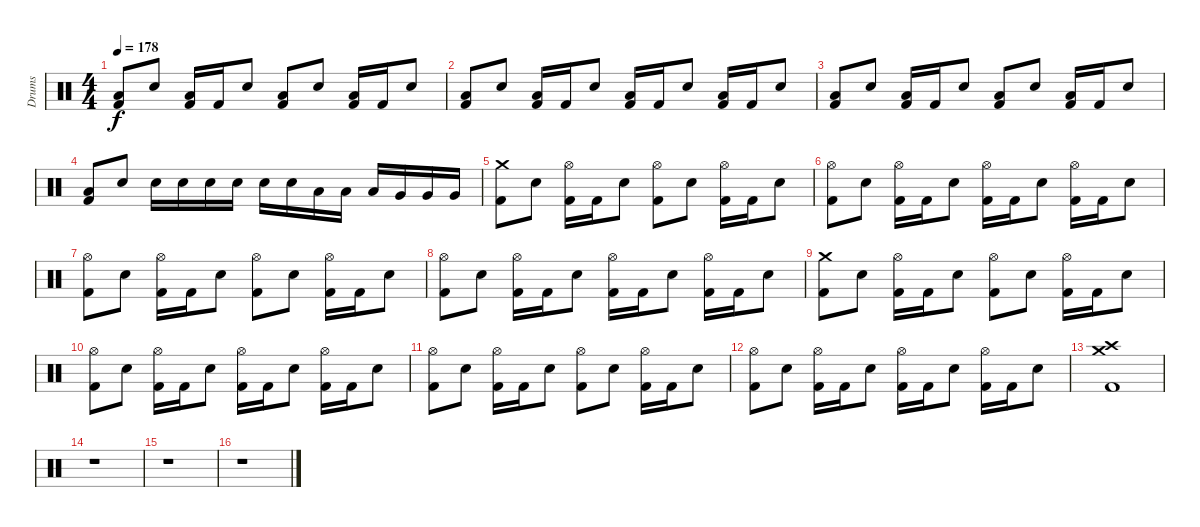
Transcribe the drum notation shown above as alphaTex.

\track ("Drums" "Drums") {instrument percussion}
\staff {score}
\articulation defaults
\ts (4 4)
\tempo 178
\clef neutral
\ks c
("Low Floor Tom (hit)" "Kick (hit) 2").8{dy f} "Electric Snare (hit)".8 ("Low Floor Tom (hit)" "Kick (hit) 2").16 "Kick (hit) 2".16 "Electric Snare (hit)".8 ("Low Floor Tom (hit)" "Kick (hit) 2").8 "Electric Snare (hit)".8 ("Low Floor Tom (hit)" "Kick (hit) 2").16 "Kick (hit) 2".16 "Electric Snare (hit)".8 |
("Low Floor Tom (hit)" "Kick (hit) 2").8 "Electric Snare (hit)".8 ("Low Floor Tom (hit)" "Kick (hit) 2").16 "Kick (hit) 2".16 "Electric Snare (hit)".8 ("Low Floor Tom (hit)" "Kick (hit) 2").16 "Kick (hit) 2".16 "Electric Snare (hit)".8 ("Low Floor Tom (hit)" "Kick (hit) 2").16 "Kick (hit) 2".16 "Electric Snare (hit)".8 |
("Low Floor Tom (hit)" "Kick (hit) 2").8 "Electric Snare (hit)".8 ("Low Floor Tom (hit)" "Kick (hit) 2").16 "Kick (hit) 2".16 "Electric Snare (hit)".8 ("Low Floor Tom (hit)" "Kick (hit) 2").8 "Electric Snare (hit)".8 ("Low Floor Tom (hit)" "Kick (hit) 2").16 "Kick (hit) 2".16 "Electric Snare (hit)".8 |
("Low Floor Tom (hit)" "Kick (hit) 2").8 "Electric Snare (hit)".8 "Electric Snare (hit)".16 "Electric Snare (hit)".16 "Electric Snare (hit)".16 "Electric Snare (hit)".16 "Electric Snare (hit)".16 "Electric Snare (hit)".16 "Low Tom (hit)".16 "Low Tom (hit)".16 "Low Tom (hit)".16 "Very Low Tom (hit)".16 "Very Low Tom (hit)".16 "Very Low Tom (hit)".16 |
("Crash medium (hit)" "Kick (hit) 2").8 "Electric Snare (hit)".8 ("Hi-Hat (open)" "Kick (hit) 2").16 "Kick (hit) 2".16 "Electric Snare (hit)".8 ("Hi-Hat (open)" "Kick (hit) 2").8 "Electric Snare (hit)".8 ("Hi-Hat (open)" "Kick (hit) 2").16 "Kick (hit) 2".16 "Electric Snare (hit)".8 |
("Hi-Hat (open)" "Kick (hit) 2").8 "Electric Snare (hit)".8 ("Hi-Hat (open)" "Kick (hit) 2").16 "Kick (hit) 2".16 "Electric Snare (hit)".8 ("Hi-Hat (open)" "Kick (hit) 2").16 "Kick (hit) 2".16 "Electric Snare (hit)".8 ("Hi-Hat (open)" "Kick (hit) 2").16 "Kick (hit) 2".16 "Electric Snare (hit)".8 |
("Hi-Hat (open)" "Kick (hit) 2").8 "Electric Snare (hit)".8 ("Hi-Hat (open)" "Kick (hit) 2").16 "Kick (hit) 2".16 "Electric Snare (hit)".8 ("Hi-Hat (open)" "Kick (hit) 2").8 "Electric Snare (hit)".8 ("Hi-Hat (open)" "Kick (hit) 2").16 "Kick (hit) 2".16 "Electric Snare (hit)".8 |
("Hi-Hat (open)" "Kick (hit) 2").8 "Electric Snare (hit)".8 ("Hi-Hat (open)" "Kick (hit) 2").16 "Kick (hit) 2".16 "Electric Snare (hit)".8 ("Hi-Hat (open)" "Kick (hit) 2").16 "Kick (hit) 2".16 "Electric Snare (hit)".8 ("Hi-Hat (open)" "Kick (hit) 2").16 "Kick (hit) 2".16 "Electric Snare (hit)".8 |
("Crash medium (hit)" "Kick (hit) 2").8 "Electric Snare (hit)".8 ("Hi-Hat (open)" "Kick (hit) 2").16 "Kick (hit) 2".16 "Electric Snare (hit)".8 ("Hi-Hat (open)" "Kick (hit) 2").8 "Electric Snare (hit)".8 ("Hi-Hat (open)" "Kick (hit) 2").16 "Kick (hit) 2".16 "Electric Snare (hit)".8 |
("Hi-Hat (open)" "Kick (hit) 2").8 "Electric Snare (hit)".8 ("Hi-Hat (open)" "Kick (hit) 2").16 "Kick (hit) 2".16 "Electric Snare (hit)".8 ("Hi-Hat (open)" "Kick (hit) 2").16 "Kick (hit) 2".16 "Electric Snare (hit)".8 ("Hi-Hat (open)" "Kick (hit) 2").16 "Kick (hit) 2".16 "Electric Snare (hit)".8 |
("Hi-Hat (open)" "Kick (hit) 2").8 "Electric Snare (hit)".8 ("Hi-Hat (open)" "Kick (hit) 2").16 "Kick (hit) 2".16 "Electric Snare (hit)".8 ("Hi-Hat (open)" "Kick (hit) 2").8 "Electric Snare (hit)".8 ("Hi-Hat (open)" "Kick (hit) 2").16 "Kick (hit) 2".16 "Electric Snare (hit)".8 |
("Hi-Hat (open)" "Kick (hit) 2").8 "Electric Snare (hit)".8 ("Hi-Hat (open)" "Kick (hit) 2").16 "Kick (hit) 2".16 "Electric Snare (hit)".8 ("Hi-Hat (open)" "Kick (hit) 2").16 "Kick (hit) 2".16 "Electric Snare (hit)".8 ("Hi-Hat (open)" "Kick (hit) 2").16 "Kick (hit) 2".16 "Electric Snare (hit)".8 |
("Crash high (hit)" "Crash medium (hit)" "Kick (hit) 2").1 |
r.1 |
r.1 |
r.1
